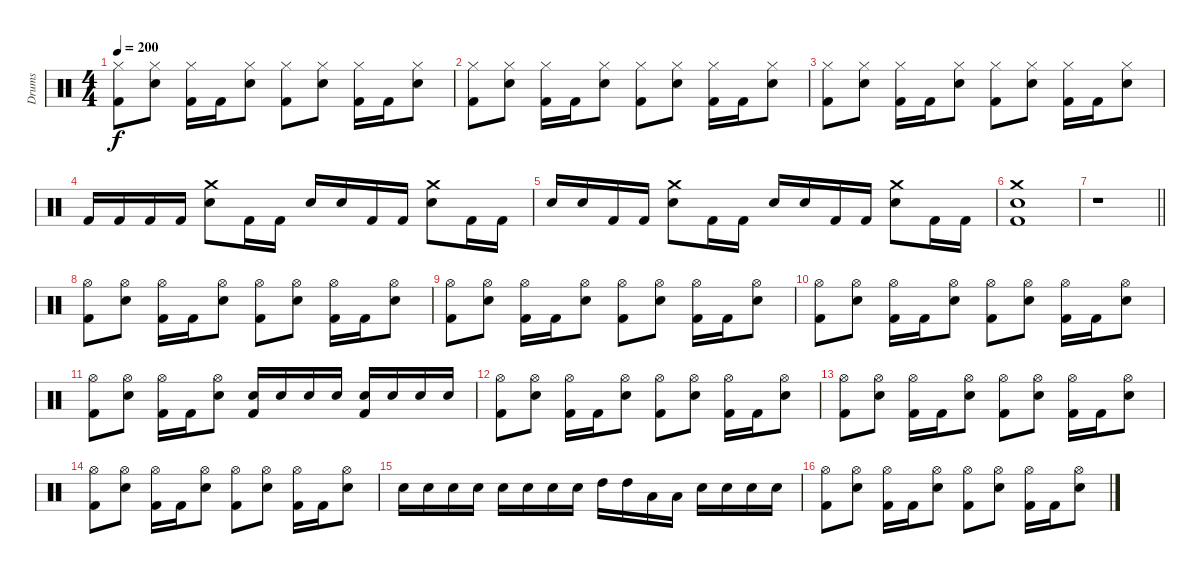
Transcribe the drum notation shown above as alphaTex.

\track ("Drums" "Drums") {instrument percussion}
\staff {score}
\articulation defaults
\ts (4 4)
\tempo 200
\clef neutral
\ks c
("Kick (hit) 2" "Hi-Hat (closed)").8{dy f} ("Snare (hit) 2" "Hi-Hat (closed)").8 ("Kick (hit) 2" "Hi-Hat (closed)").16 "Kick (hit) 2".16 ("Snare (hit) 2" "Hi-Hat (closed)").8 ("Kick (hit) 2" "Hi-Hat (closed)").8 ("Snare (hit) 2" "Hi-Hat (closed)").8 ("Kick (hit) 2" "Hi-Hat (closed)").16 "Kick (hit) 2".16 ("Snare (hit) 2" "Hi-Hat (closed)").8 |
("Kick (hit) 2" "Hi-Hat (closed)").8 ("Snare (hit) 2" "Hi-Hat (closed)").8 ("Kick (hit) 2" "Hi-Hat (closed)").16 "Kick (hit) 2".16 ("Snare (hit) 2" "Hi-Hat (closed)").8 ("Kick (hit) 2" "Hi-Hat (closed)").8 ("Snare (hit) 2" "Hi-Hat (closed)").8 ("Kick (hit) 2" "Hi-Hat (closed)").16 "Kick (hit) 2".16 ("Snare (hit) 2" "Hi-Hat (closed)").8 |
("Kick (hit) 2" "Hi-Hat (closed)").8 ("Snare (hit) 2" "Hi-Hat (closed)").8 ("Kick (hit) 2" "Hi-Hat (closed)").16 "Kick (hit) 2".16 ("Snare (hit) 2" "Hi-Hat (closed)").8 ("Kick (hit) 2" "Hi-Hat (closed)").8 ("Snare (hit) 2" "Hi-Hat (closed)").8 ("Kick (hit) 2" "Hi-Hat (closed)").16 "Kick (hit) 2".16 ("Snare (hit) 2" "Hi-Hat (closed)").8 |
"Kick (hit) 2".16 "Kick (hit) 2".16 "Kick (hit) 2".16 "Kick (hit) 2".16 ("Snare (hit) 2" "Crash medium (hit)").8 "Kick (hit) 2".16 "Kick (hit) 2".16 "Snare (hit) 2".16 "Snare (hit) 2".16 "Kick (hit) 2".16 "Kick (hit) 2".16 ("Snare (hit) 2" "Crash medium (hit)").8 "Kick (hit) 2".16 "Kick (hit) 2".16 |
"Snare (hit) 2".16 "Snare (hit) 2".16 "Kick (hit) 2".16 "Kick (hit) 2".16 ("Snare (hit) 2" "Crash medium (hit)").8 "Kick (hit) 2".16 "Kick (hit) 2".16 "Snare (hit) 2".16 "Snare (hit) 2".16 "Kick (hit) 2".16 "Kick (hit) 2".16 ("Snare (hit) 2" "Crash medium (hit)").8 "Kick (hit) 2".16 "Kick (hit) 2".16 |
("Kick (hit) 2" "Snare (hit) 2" "Crash medium (hit)").1 |
\barLineRight lightlight
r.1 |
\section ("" "")
("Kick (hit) 2" "Hi-Hat (open)").8 ("Snare (hit) 2" "Hi-Hat (open)").8 ("Kick (hit) 2" "Hi-Hat (open)").16 "Kick (hit) 2".16 ("Snare (hit) 2" "Hi-Hat (open)").8 ("Kick (hit) 2" "Hi-Hat (open)").8 ("Snare (hit) 2" "Hi-Hat (open)").8 ("Kick (hit) 2" "Hi-Hat (open)").16 "Kick (hit) 2".16 ("Snare (hit) 2" "Hi-Hat (open)").8 |
("Kick (hit) 2" "Hi-Hat (open)").8 ("Snare (hit) 2" "Hi-Hat (open)").8 ("Kick (hit) 2" "Hi-Hat (open)").16 "Kick (hit) 2".16 ("Snare (hit) 2" "Hi-Hat (open)").8 ("Kick (hit) 2" "Hi-Hat (open)").8 ("Snare (hit) 2" "Hi-Hat (open)").8 ("Kick (hit) 2" "Hi-Hat (open)").16 "Kick (hit) 2".16 ("Snare (hit) 2" "Hi-Hat (open)").8 |
("Kick (hit) 2" "Hi-Hat (open)").8 ("Snare (hit) 2" "Hi-Hat (open)").8 ("Kick (hit) 2" "Hi-Hat (open)").16 "Kick (hit) 2".16 ("Snare (hit) 2" "Hi-Hat (open)").8 ("Kick (hit) 2" "Hi-Hat (open)").8 ("Snare (hit) 2" "Hi-Hat (open)").8 ("Kick (hit) 2" "Hi-Hat (open)").16 "Kick (hit) 2".16 ("Snare (hit) 2" "Hi-Hat (open)").8 |
("Kick (hit) 2" "Hi-Hat (open)").8 ("Snare (hit) 2" "Hi-Hat (open)").8 ("Kick (hit) 2" "Hi-Hat (open)").16 "Kick (hit) 2".16 ("Snare (hit) 2" "Hi-Hat (open)").8 ("Kick (hit) 2" "Snare (hit) 2").16 "Snare (hit) 2".16 "Snare (hit) 2".16 "Snare (hit) 2".16 ("Kick (hit) 2" "Snare (hit) 2").16 "Snare (hit) 2".16 "Snare (hit) 2".16 "Snare (hit) 2".16 |
("Kick (hit) 2" "Hi-Hat (open)").8 ("Snare (hit) 2" "Hi-Hat (open)").8 ("Kick (hit) 2" "Hi-Hat (open)").16 "Kick (hit) 2".16 ("Snare (hit) 2" "Hi-Hat (open)").8 ("Kick (hit) 2" "Hi-Hat (open)").8 ("Snare (hit) 2" "Hi-Hat (open)").8 ("Kick (hit) 2" "Hi-Hat (open)").16 "Kick (hit) 2".16 ("Snare (hit) 2" "Hi-Hat (open)").8 |
("Kick (hit) 2" "Hi-Hat (open)").8 ("Snare (hit) 2" "Hi-Hat (open)").8 ("Kick (hit) 2" "Hi-Hat (open)").16 "Kick (hit) 2".16 ("Snare (hit) 2" "Hi-Hat (open)").8 ("Kick (hit) 2" "Hi-Hat (open)").8 ("Snare (hit) 2" "Hi-Hat (open)").8 ("Kick (hit) 2" "Hi-Hat (open)").16 "Kick (hit) 2".16 ("Snare (hit) 2" "Hi-Hat (open)").8 |
("Kick (hit) 2" "Hi-Hat (open)").8 ("Snare (hit) 2" "Hi-Hat (open)").8 ("Kick (hit) 2" "Hi-Hat (open)").16 "Kick (hit) 2".16 ("Snare (hit) 2" "Hi-Hat (open)").8 ("Kick (hit) 2" "Hi-Hat (open)").8 ("Snare (hit) 2" "Hi-Hat (open)").8 ("Kick (hit) 2" "Hi-Hat (open)").16 "Kick (hit) 2".16 ("Snare (hit) 2" "Hi-Hat (open)").8 |
"Snare (hit) 2".16 "Snare (hit) 2".16 "Snare (hit) 2".16 "Snare (hit) 2".16 "Snare (hit) 2".16 "Snare (hit) 2".16 "Snare (hit) 2".16 "Snare (hit) 2".16 "High Tom (hit)".16 "High Tom (hit)".16 "Low Tom (hit)".16 "Low Tom (hit)".16 "Snare (hit) 2".16 "Snare (hit) 2".16 "Snare (hit) 2".16 "Snare (hit) 2".16 |
("Kick (hit) 2" "Hi-Hat (open)").8 ("Snare (hit) 2" "Hi-Hat (open)").8 ("Kick (hit) 2" "Hi-Hat (open)").16 "Kick (hit) 2".16 ("Snare (hit) 2" "Hi-Hat (open)").8 ("Kick (hit) 2" "Hi-Hat (open)").8 ("Snare (hit) 2" "Hi-Hat (open)").8 ("Kick (hit) 2" "Hi-Hat (open)").16 "Kick (hit) 2".16 ("Snare (hit) 2" "Hi-Hat (open)").8
